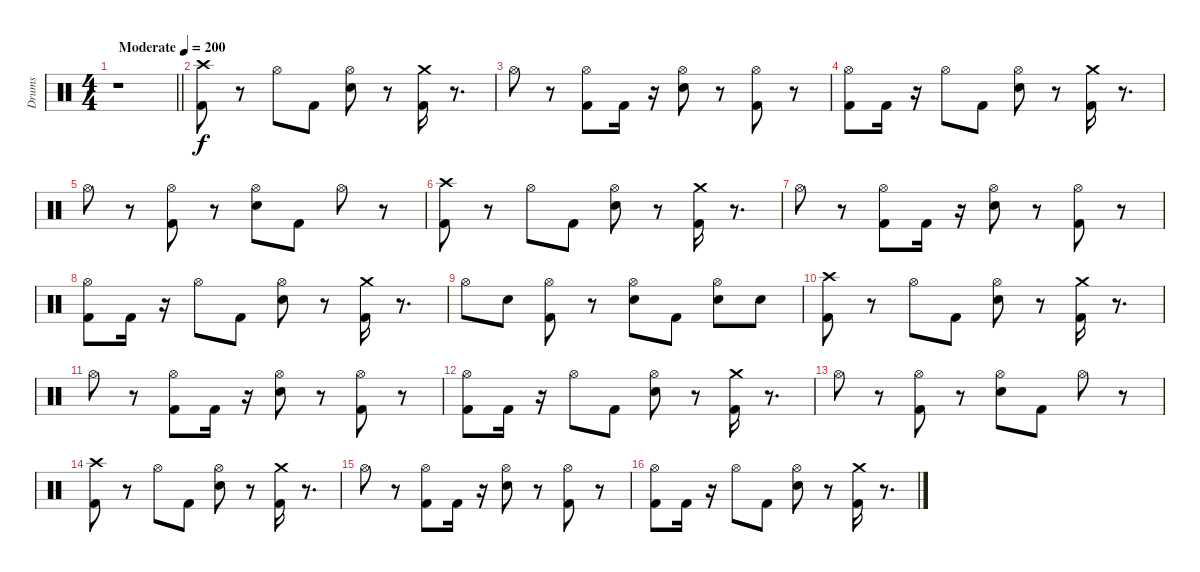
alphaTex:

\track ("Drums" "Drums") {instrument percussion}
\staff {score}
\articulation defaults
\ts (4 4)
\tempo (200 "Moderate")
\clef neutral
\barLineRight lightlight
\ks c
r.1{dy f} |
\section ("" " ")
("Kick (hit) 2" "Crash high (hit)").8 r.8 "Hi-Hat (open)".8 "Kick (hit) 2".8 ("Snare (hit) 2" "Hi-Hat (open)").8 r.8 ("Kick (hit) 2" "Crash medium (hit)").16 r.8{d} |
"Hi-Hat (open)".8 r.8 ("Kick (hit) 2" "Hi-Hat (open)").8 "Kick (hit) 2".16 r.16 ("Snare (hit) 2" "Hi-Hat (open)").8 r.8 ("Kick (hit) 2" "Hi-Hat (open)").8 r.8 |
("Kick (hit) 2" "Hi-Hat (open)").8 "Kick (hit) 2".16 r.16 "Hi-Hat (open)".8 "Kick (hit) 2".8 ("Snare (hit) 2" "Hi-Hat (open)").8 r.8 ("Kick (hit) 2" "Crash medium (hit)").16 r.8{d} |
"Hi-Hat (open)".8 r.8 ("Kick (hit) 2" "Hi-Hat (open)").8 r.8 ("Snare (hit) 2" "Hi-Hat (open)").8 "Kick (hit) 2".8 "Hi-Hat (open)".8 r.8 |
("Kick (hit) 2" "Crash high (hit)").8 r.8 "Hi-Hat (open)".8 "Kick (hit) 2".8 ("Snare (hit) 2" "Hi-Hat (open)").8 r.8 ("Kick (hit) 2" "Crash medium (hit)").16 r.8{d} |
"Hi-Hat (open)".8 r.8 ("Kick (hit) 2" "Hi-Hat (open)").8 "Kick (hit) 2".16 r.16 ("Snare (hit) 2" "Hi-Hat (open)").8 r.8 ("Kick (hit) 2" "Hi-Hat (open)").8 r.8 |
("Kick (hit) 2" "Hi-Hat (open)").8 "Kick (hit) 2".16 r.16 "Hi-Hat (open)".8 "Kick (hit) 2".8 ("Snare (hit) 2" "Hi-Hat (open)").8 r.8 ("Kick (hit) 2" "Crash medium (hit)").16 r.8{d} |
"Hi-Hat (open)".8 "Snare (hit) 2".8 ("Kick (hit) 2" "Hi-Hat (open)").8 r.8 ("Snare (hit) 2" "Hi-Hat (open)").8 "Kick (hit) 2".8 ("Snare (hit) 2" "Hi-Hat (open)").8 "Snare (hit) 2".8 |
("Kick (hit) 2" "Crash high (hit)").8 r.8 "Hi-Hat (open)".8 "Kick (hit) 2".8 ("Snare (hit) 2" "Hi-Hat (open)").8 r.8 ("Kick (hit) 2" "Crash medium (hit)").16 r.8{d} |
"Hi-Hat (open)".8 r.8 ("Kick (hit) 2" "Hi-Hat (open)").8 "Kick (hit) 2".16 r.16 ("Snare (hit) 2" "Hi-Hat (open)").8 r.8 ("Kick (hit) 2" "Hi-Hat (open)").8 r.8 |
("Kick (hit) 2" "Hi-Hat (open)").8 "Kick (hit) 2".16 r.16 "Hi-Hat (open)".8 "Kick (hit) 2".8 ("Snare (hit) 2" "Hi-Hat (open)").8 r.8 ("Kick (hit) 2" "Crash medium (hit)").16 r.8{d} |
"Hi-Hat (open)".8 r.8 ("Kick (hit) 2" "Hi-Hat (open)").8 r.8 ("Snare (hit) 2" "Hi-Hat (open)").8 "Kick (hit) 2".8 "Hi-Hat (open)".8 r.8 |
("Kick (hit) 2" "Crash high (hit)").8 r.8 "Hi-Hat (open)".8 "Kick (hit) 2".8 ("Snare (hit) 2" "Hi-Hat (open)").8 r.8 ("Kick (hit) 2" "Crash medium (hit)").16 r.8{d} |
"Hi-Hat (open)".8 r.8 ("Kick (hit) 2" "Hi-Hat (open)").8 "Kick (hit) 2".16 r.16 ("Snare (hit) 2" "Hi-Hat (open)").8 r.8 ("Kick (hit) 2" "Hi-Hat (open)").8 r.8 |
("Kick (hit) 2" "Hi-Hat (open)").8 "Kick (hit) 2".16 r.16 "Hi-Hat (open)".8 "Kick (hit) 2".8 ("Snare (hit) 2" "Hi-Hat (open)").8 r.8 ("Kick (hit) 2" "Crash medium (hit)").16 r.8{d}
